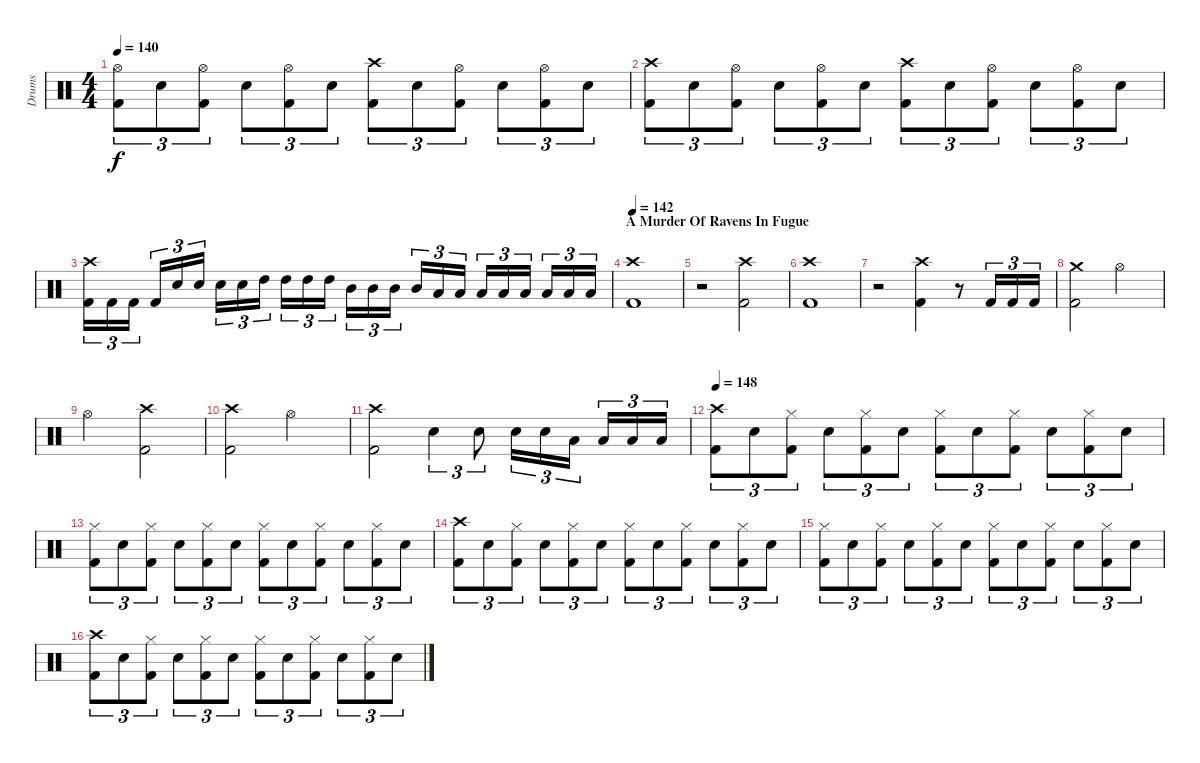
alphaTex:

\track ("Drums" "Drums") {instrument percussion}
\staff {score}
\articulation defaults
\ts (4 4)
\tempo 140
\clef neutral
\ks c
("Hi-Hat (open)" "Kick (hit) 2").8{tu (3 2) dy f} "Electric Snare (hit)".8{tu (3 2)} ("Hi-Hat (open)" "Kick (hit) 2").8{tu (3 2)} "Electric Snare (hit)".8{tu (3 2)} ("Hi-Hat (open)" "Kick (hit) 2").8{tu (3 2)} "Electric Snare (hit)".8{tu (3 2)} ("Crash high (hit)" "Kick (hit) 2").8{tu (3 2)} "Electric Snare (hit)".8{tu (3 2)} ("Hi-Hat (open)" "Kick (hit) 2").8{tu (3 2)} "Electric Snare (hit)".8{tu (3 2)} ("Hi-Hat (open)" "Kick (hit) 2").8{tu (3 2)} "Electric Snare (hit)".8{tu (3 2)} |
("Crash high (hit)" "Kick (hit) 2").8{tu (3 2)} "Electric Snare (hit)".8{tu (3 2)} ("Hi-Hat (open)" "Kick (hit) 2").8{tu (3 2)} "Electric Snare (hit)".8{tu (3 2)} ("Hi-Hat (open)" "Kick (hit) 2").8{tu (3 2)} "Electric Snare (hit)".8{tu (3 2)} ("Crash high (hit)" "Kick (hit) 2").8{tu (3 2)} "Electric Snare (hit)".8{tu (3 2)} ("Hi-Hat (open)" "Kick (hit) 2").8{tu (3 2)} "Electric Snare (hit)".8{tu (3 2)} ("Hi-Hat (open)" "Kick (hit) 2").8{tu (3 2)} "Electric Snare (hit)".8{tu (3 2)} |
("Crash high (hit)" "Kick (hit) 2").16{tu (3 2)} "Kick (hit) 2".16{tu (3 2)} "Kick (hit) 2".16{tu (3 2)} "Kick (hit) 2".16{tu (3 2)} "Electric Snare (hit)".16{tu (3 2)} "Electric Snare (hit)".16{tu (3 2)} "Electric Snare (hit)".16{tu (3 2)} "Electric Snare (hit)".16{tu (3 2)} "High Tom (hit)".16{tu (3 2)} "High Tom (hit)".16{tu (3 2)} "High Tom (hit)".16{tu (3 2)} "High Tom (hit)".16{tu (3 2)} "Mid Tom (hit)".16{tu (3 2)} "Mid Tom (hit)".16{tu (3 2)} "Mid Tom (hit)".16{tu (3 2)} "Mid Tom (hit)".16{tu (3 2)} "Low Tom (hit)".16{tu (3 2)} "Low Tom (hit)".16{tu (3 2)} "Low Tom (hit)".16{tu (3 2)} "Low Tom (hit)".16{tu (3 2)} "Low Floor Tom (hit)".16{tu (3 2)} "Low Floor Tom (hit)".16{tu (3 2)} "Low Floor Tom (hit)".16{tu (3 2)} "Low Floor Tom (hit)".16{tu (3 2)} |
\section ("" "A Murder Of Ravens In Fugue")
\tempo 142
("Crash high (hit)" "Kick (hit) 2").1 |
r.2 ("Crash high (hit)" "Kick (hit) 2").2 |
("Crash high (hit)" "Kick (hit) 2").1 |
r.2 ("Crash high (hit)" "Kick (hit) 2").4 r.8 "Kick (hit) 2".16{tu (3 2)} "Kick (hit) 2".16{tu (3 2)} "Kick (hit) 2".16{tu (3 2)} |
("Crash medium (hit)" "Kick (hit) 2").2 "Hi-Hat (open)".2 |
"Hi-Hat (open)".2 ("Crash high (hit)" "Kick (hit) 2").2 |
("Crash high (hit)" "Kick (hit) 2").2 "Hi-Hat (open)".2 |
("Crash high (hit)" "Kick (hit) 2").2 "Electric Snare (hit)".4{tu (3 2)} "Electric Snare (hit)".8{tu (3 2)} "Electric Snare (hit)".16{tu (3 2)} "Electric Snare (hit)".16{tu (3 2)} "Low Tom (hit)".16{tu (3 2)} "Low Tom (hit)".16{tu (3 2)} "Low Floor Tom (hit)".16{tu (3 2)} "Low Floor Tom (hit)".16{tu (3 2)} |
\tempo 148
("Crash high (hit)" "Kick (hit) 2").8{tu (3 2)} "Electric Snare (hit)".8{tu (3 2)} ("Hi-Hat (closed)" "Kick (hit) 2").8{tu (3 2)} "Electric Snare (hit)".8{tu (3 2)} ("Hi-Hat (closed)" "Kick (hit) 2").8{tu (3 2)} "Electric Snare (hit)".8{tu (3 2)} ("Hi-Hat (closed)" "Kick (hit) 2").8{tu (3 2)} "Electric Snare (hit)".8{tu (3 2)} ("Hi-Hat (closed)" "Kick (hit) 2").8{tu (3 2)} "Electric Snare (hit)".8{tu (3 2)} ("Hi-Hat (closed)" "Kick (hit) 2").8{tu (3 2)} "Electric Snare (hit)".8{tu (3 2)} |
("Hi-Hat (closed)" "Kick (hit) 2").8{tu (3 2)} "Electric Snare (hit)".8{tu (3 2)} ("Hi-Hat (closed)" "Kick (hit) 2").8{tu (3 2)} "Electric Snare (hit)".8{tu (3 2)} ("Hi-Hat (closed)" "Kick (hit) 2").8{tu (3 2)} "Electric Snare (hit)".8{tu (3 2)} ("Hi-Hat (closed)" "Kick (hit) 2").8{tu (3 2)} "Electric Snare (hit)".8{tu (3 2)} ("Hi-Hat (closed)" "Kick (hit) 2").8{tu (3 2)} "Electric Snare (hit)".8{tu (3 2)} ("Hi-Hat (closed)" "Kick (hit) 2").8{tu (3 2)} "Electric Snare (hit)".8{tu (3 2)} |
("Crash high (hit)" "Kick (hit) 2").8{tu (3 2)} "Electric Snare (hit)".8{tu (3 2)} ("Hi-Hat (closed)" "Kick (hit) 2").8{tu (3 2)} "Electric Snare (hit)".8{tu (3 2)} ("Hi-Hat (closed)" "Kick (hit) 2").8{tu (3 2)} "Electric Snare (hit)".8{tu (3 2)} ("Hi-Hat (closed)" "Kick (hit) 2").8{tu (3 2)} "Electric Snare (hit)".8{tu (3 2)} ("Hi-Hat (closed)" "Kick (hit) 2").8{tu (3 2)} "Electric Snare (hit)".8{tu (3 2)} ("Hi-Hat (closed)" "Kick (hit) 2").8{tu (3 2)} "Electric Snare (hit)".8{tu (3 2)} |
("Hi-Hat (closed)" "Kick (hit) 2").8{tu (3 2)} "Electric Snare (hit)".8{tu (3 2)} ("Hi-Hat (closed)" "Kick (hit) 2").8{tu (3 2)} "Electric Snare (hit)".8{tu (3 2)} ("Hi-Hat (closed)" "Kick (hit) 2").8{tu (3 2)} "Electric Snare (hit)".8{tu (3 2)} ("Hi-Hat (closed)" "Kick (hit) 2").8{tu (3 2)} "Electric Snare (hit)".8{tu (3 2)} ("Hi-Hat (closed)" "Kick (hit) 2").8{tu (3 2)} "Electric Snare (hit)".8{tu (3 2)} ("Hi-Hat (closed)" "Kick (hit) 2").8{tu (3 2)} "Electric Snare (hit)".8{tu (3 2)} |
("Crash high (hit)" "Kick (hit) 2").8{tu (3 2)} "Electric Snare (hit)".8{tu (3 2)} ("Hi-Hat (closed)" "Kick (hit) 2").8{tu (3 2)} "Electric Snare (hit)".8{tu (3 2)} ("Hi-Hat (closed)" "Kick (hit) 2").8{tu (3 2)} "Electric Snare (hit)".8{tu (3 2)} ("Hi-Hat (closed)" "Kick (hit) 2").8{tu (3 2)} "Electric Snare (hit)".8{tu (3 2)} ("Hi-Hat (closed)" "Kick (hit) 2").8{tu (3 2)} "Electric Snare (hit)".8{tu (3 2)} ("Hi-Hat (closed)" "Kick (hit) 2").8{tu (3 2)} "Electric Snare (hit)".8{tu (3 2)}
